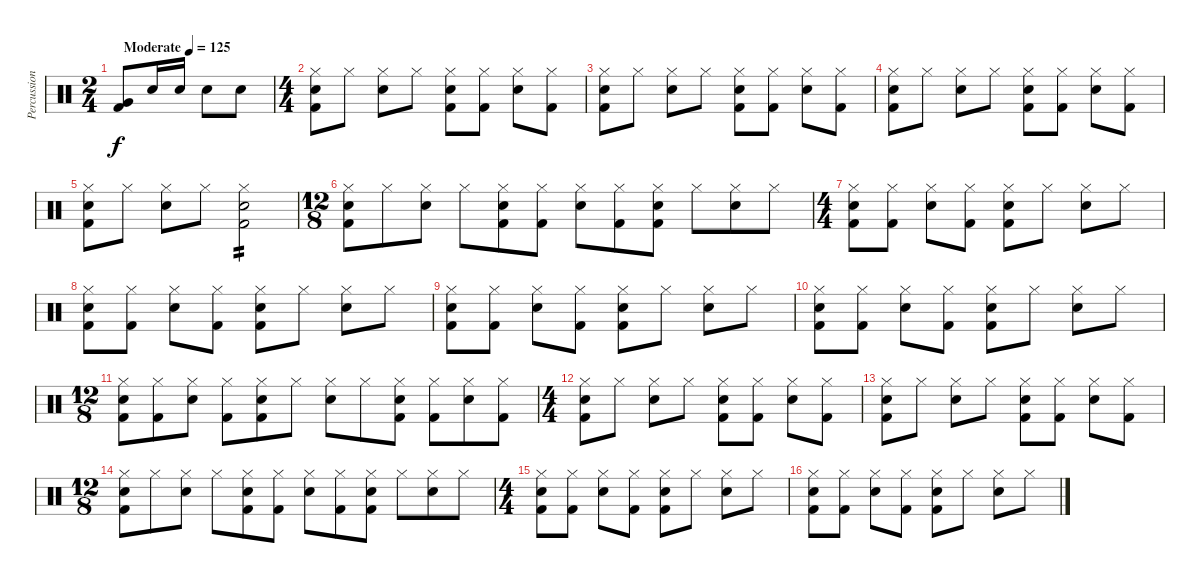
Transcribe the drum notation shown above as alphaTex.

\track ("Percussion" "Percussion") {instrument percussion}
\staff {score}
\articulation defaults
\ts (2 4)
\tempo (125 "Moderate")
\clef neutral
\ks c
("Very Low Tom (hit)" "Kick (hit) 2").8{dy f} "Electric Snare (hit)".16 "Electric Snare (hit)".16 "Electric Snare (hit)".8 "Electric Snare (hit)".8 |
\ts (4 4)
("Hi-Hat (closed)" "Electric Snare (hit)" "Kick (hit) 2").8 "Hi-Hat (closed)".8 ("Hi-Hat (closed)" "Electric Snare (hit)").8 "Hi-Hat (closed)".8 ("Hi-Hat (closed)" "Electric Snare (hit)" "Kick (hit) 2").8 ("Hi-Hat (closed)" "Kick (hit) 2").8 ("Hi-Hat (closed)" "Electric Snare (hit)").8 ("Hi-Hat (closed)" "Kick (hit) 2").8 |
("Hi-Hat (closed)" "Electric Snare (hit)" "Kick (hit) 2").8 "Hi-Hat (closed)".8 ("Hi-Hat (closed)" "Electric Snare (hit)").8 "Hi-Hat (closed)".8 ("Hi-Hat (closed)" "Electric Snare (hit)" "Kick (hit) 2").8 ("Hi-Hat (closed)" "Kick (hit) 2").8 ("Hi-Hat (closed)" "Electric Snare (hit)").8 ("Hi-Hat (closed)" "Kick (hit) 2").8 |
("Hi-Hat (closed)" "Electric Snare (hit)" "Kick (hit) 2").8 "Hi-Hat (closed)".8 ("Hi-Hat (closed)" "Electric Snare (hit)").8 "Hi-Hat (closed)".8 ("Hi-Hat (closed)" "Electric Snare (hit)" "Kick (hit) 2").8 ("Hi-Hat (closed)" "Kick (hit) 2").8 ("Hi-Hat (closed)" "Electric Snare (hit)").8 ("Hi-Hat (closed)" "Kick (hit) 2").8 |
("Hi-Hat (closed)" "Electric Snare (hit)" "Kick (hit) 2").8 "Hi-Hat (closed)".8 ("Hi-Hat (closed)" "Electric Snare (hit)").8 "Hi-Hat (closed)".8 ("Hi-Hat (closed)" "Electric Snare (hit)" "Kick (hit) 2").2{tp 2} |
\ts (12 8)
("Hi-Hat (closed)" "Electric Snare (hit)" "Kick (hit) 2").8 "Hi-Hat (closed)".8 ("Hi-Hat (closed)" "Electric Snare (hit)").8 "Hi-Hat (closed)".8 ("Hi-Hat (closed)" "Electric Snare (hit)" "Kick (hit) 2").8 ("Hi-Hat (closed)" "Kick (hit) 2").8 ("Hi-Hat (closed)" "Electric Snare (hit)").8 ("Hi-Hat (closed)" "Kick (hit) 2").8 ("Hi-Hat (closed)" "Electric Snare (hit)" "Kick (hit) 2").8 "Hi-Hat (closed)".8 ("Hi-Hat (closed)" "Electric Snare (hit)").8 "Hi-Hat (closed)".8 |
\ts (4 4)
("Hi-Hat (closed)" "Electric Snare (hit)" "Kick (hit) 2").8 ("Hi-Hat (closed)" "Kick (hit) 2").8 ("Hi-Hat (closed)" "Electric Snare (hit)").8 ("Hi-Hat (closed)" "Kick (hit) 2").8 ("Hi-Hat (closed)" "Electric Snare (hit)" "Kick (hit) 2").8 "Hi-Hat (closed)".8 ("Hi-Hat (closed)" "Electric Snare (hit)").8 "Hi-Hat (closed)".8 |
("Hi-Hat (closed)" "Electric Snare (hit)" "Kick (hit) 2").8 ("Hi-Hat (closed)" "Kick (hit) 2").8 ("Hi-Hat (closed)" "Electric Snare (hit)").8 ("Hi-Hat (closed)" "Kick (hit) 2").8 ("Hi-Hat (closed)" "Electric Snare (hit)" "Kick (hit) 2").8 "Hi-Hat (closed)".8 ("Hi-Hat (closed)" "Electric Snare (hit)").8 "Hi-Hat (closed)".8 |
("Hi-Hat (closed)" "Electric Snare (hit)" "Kick (hit) 2").8 ("Hi-Hat (closed)" "Kick (hit) 2").8 ("Hi-Hat (closed)" "Electric Snare (hit)").8 ("Hi-Hat (closed)" "Kick (hit) 2").8 ("Hi-Hat (closed)" "Electric Snare (hit)" "Kick (hit) 2").8 "Hi-Hat (closed)".8 ("Hi-Hat (closed)" "Electric Snare (hit)").8 "Hi-Hat (closed)".8 |
("Hi-Hat (closed)" "Electric Snare (hit)" "Kick (hit) 2").8 ("Hi-Hat (closed)" "Kick (hit) 2").8 ("Hi-Hat (closed)" "Electric Snare (hit)").8 ("Hi-Hat (closed)" "Kick (hit) 2").8 ("Hi-Hat (closed)" "Electric Snare (hit)" "Kick (hit) 2").8 "Hi-Hat (closed)".8 ("Hi-Hat (closed)" "Electric Snare (hit)").8 "Hi-Hat (closed)".8 |
\ts (12 8)
("Hi-Hat (closed)" "Electric Snare (hit)" "Kick (hit) 2").8 ("Hi-Hat (closed)" "Kick (hit) 2").8 ("Hi-Hat (closed)" "Electric Snare (hit)").8 ("Hi-Hat (closed)" "Kick (hit) 2").8 ("Hi-Hat (closed)" "Electric Snare (hit)" "Kick (hit) 2").8 "Hi-Hat (closed)".8 ("Hi-Hat (closed)" "Electric Snare (hit)").8 "Hi-Hat (closed)".8 ("Hi-Hat (closed)" "Electric Snare (hit)" "Kick (hit) 2").8 ("Hi-Hat (closed)" "Kick (hit) 2").8 ("Hi-Hat (closed)" "Electric Snare (hit)").8 ("Hi-Hat (closed)" "Kick (hit) 2").8 |
\ts (4 4)
("Hi-Hat (closed)" "Electric Snare (hit)" "Kick (hit) 2").8 "Hi-Hat (closed)".8 ("Hi-Hat (closed)" "Electric Snare (hit)").8 "Hi-Hat (closed)".8 ("Hi-Hat (closed)" "Electric Snare (hit)" "Kick (hit) 2").8 ("Hi-Hat (closed)" "Kick (hit) 2").8 ("Hi-Hat (closed)" "Electric Snare (hit)").8 ("Hi-Hat (closed)" "Kick (hit) 2").8 |
("Hi-Hat (closed)" "Electric Snare (hit)" "Kick (hit) 2").8 "Hi-Hat (closed)".8 ("Hi-Hat (closed)" "Electric Snare (hit)").8 "Hi-Hat (closed)".8 ("Hi-Hat (closed)" "Electric Snare (hit)" "Kick (hit) 2").8 ("Hi-Hat (closed)" "Kick (hit) 2").8 ("Hi-Hat (closed)" "Electric Snare (hit)").8 ("Hi-Hat (closed)" "Kick (hit) 2").8 |
\ts (12 8)
("Hi-Hat (closed)" "Electric Snare (hit)" "Kick (hit) 2").8 "Hi-Hat (closed)".8 ("Hi-Hat (closed)" "Electric Snare (hit)").8 "Hi-Hat (closed)".8 ("Hi-Hat (closed)" "Electric Snare (hit)" "Kick (hit) 2").8 ("Hi-Hat (closed)" "Kick (hit) 2").8 ("Hi-Hat (closed)" "Electric Snare (hit)").8 ("Hi-Hat (closed)" "Kick (hit) 2").8 ("Hi-Hat (closed)" "Electric Snare (hit)" "Kick (hit) 2").8 "Hi-Hat (closed)".8 ("Hi-Hat (closed)" "Electric Snare (hit)").8 "Hi-Hat (closed)".8 |
\ts (4 4)
("Hi-Hat (closed)" "Electric Snare (hit)" "Kick (hit) 2").8 ("Hi-Hat (closed)" "Kick (hit) 2").8 ("Hi-Hat (closed)" "Electric Snare (hit)").8 ("Hi-Hat (closed)" "Kick (hit) 2").8 ("Hi-Hat (closed)" "Electric Snare (hit)" "Kick (hit) 2").8 "Hi-Hat (closed)".8 ("Hi-Hat (closed)" "Electric Snare (hit)").8 "Hi-Hat (closed)".8 |
("Hi-Hat (closed)" "Electric Snare (hit)" "Kick (hit) 2").8 ("Hi-Hat (closed)" "Kick (hit) 2").8 ("Hi-Hat (closed)" "Electric Snare (hit)").8 ("Hi-Hat (closed)" "Kick (hit) 2").8 ("Hi-Hat (closed)" "Electric Snare (hit)" "Kick (hit) 2").8 "Hi-Hat (closed)".8 ("Hi-Hat (closed)" "Electric Snare (hit)").8 "Hi-Hat (closed)".8
